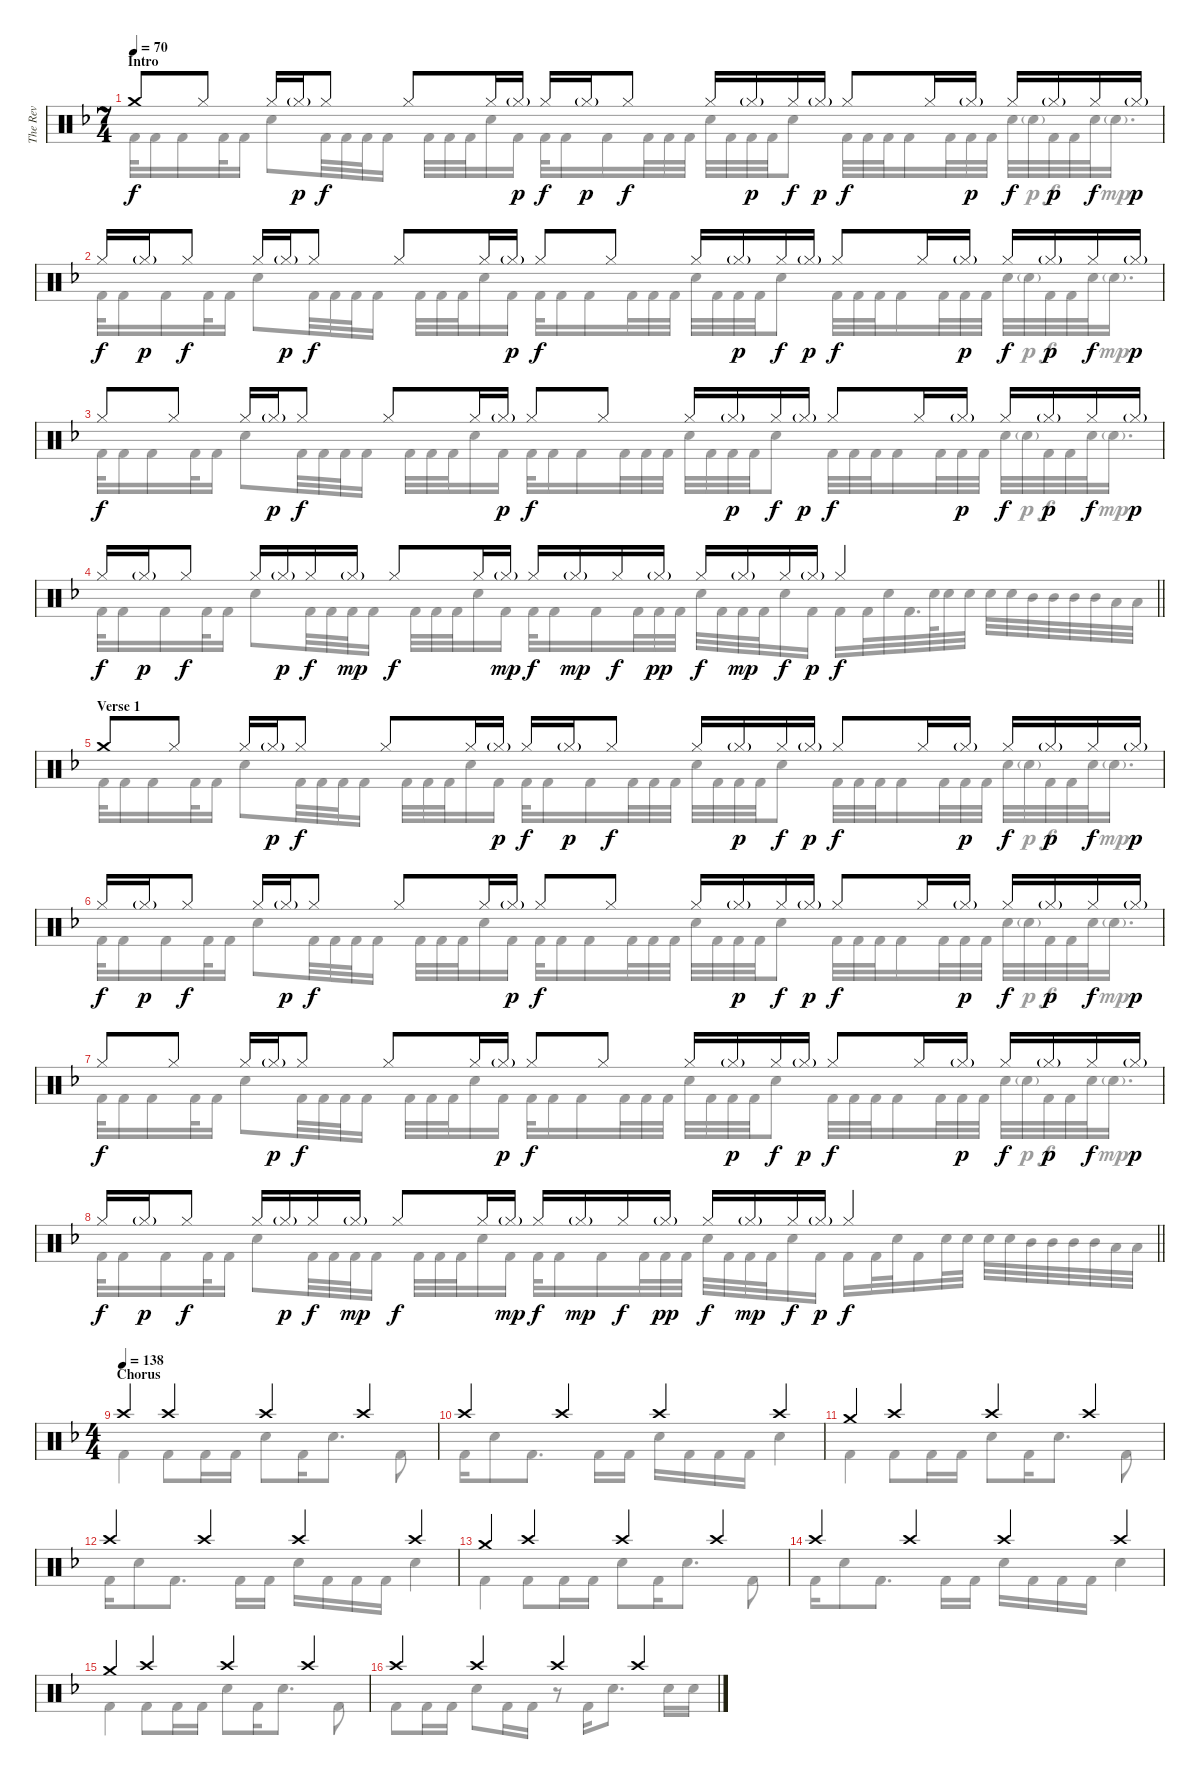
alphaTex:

\track ("The Rev" "The Rev") {instrument percussion}
\staff {score}
\articulation defaults
\voice
\ts (7 4)
\section ("" "Intro")
\tempo 70
\clef neutral
\ks dminor "Crash medium (hit)".8{dy f} "Hi-Hat (closed)".8 "Hi-Hat (closed)".16 "Hi-Hat (closed)"{g}.16{dy p} "Hi-Hat (closed)".8{dy f} "Hi-Hat (closed)".8 "Hi-Hat (closed)".16 "Hi-Hat (closed)"{g}.16{dy p} "Hi-Hat (closed)".16{dy f} "Hi-Hat (closed)"{g}.16{dy p} "Hi-Hat (closed)".8{dy f} "Hi-Hat (closed)".16 "Hi-Hat (closed)"{g}.16{dy p} "Hi-Hat (closed)".16{dy f} "Hi-Hat (closed)"{g}.16{dy p} "Hi-Hat (closed)".8{dy f} "Hi-Hat (closed)".16 "Hi-Hat (closed)"{g}.16{dy p} "Hi-Hat (closed)".16{dy f} "Hi-Hat (closed)"{g}.16{dy p} "Hi-Hat (closed)".16{dy f} "Hi-Hat (closed)"{g}.16{dy p}
|
"Hi-Hat (closed)".16{dy f} "Hi-Hat (closed)"{g}.16{dy p} "Hi-Hat (closed)".8{dy f} "Hi-Hat (closed)".16 "Hi-Hat (closed)"{g}.16{dy p} "Hi-Hat (closed)".8{dy f} "Hi-Hat (closed)".8 "Hi-Hat (closed)".16 "Hi-Hat (closed)"{g}.16{dy p} "Hi-Hat (closed)".8{dy f} "Hi-Hat (closed)".8 "Hi-Hat (closed)".16 "Hi-Hat (closed)"{g}.16{dy p} "Hi-Hat (closed)".16{dy f} "Hi-Hat (closed)"{g}.16{dy p} "Hi-Hat (closed)".8{dy f} "Hi-Hat (closed)".16 "Hi-Hat (closed)"{g}.16{dy p} "Hi-Hat (closed)".16{dy f} "Hi-Hat (closed)"{g}.16{dy p} "Hi-Hat (closed)".16{dy f} "Hi-Hat (closed)"{g}.16{dy p} |
"Hi-Hat (closed)".8{dy f} "Hi-Hat (closed)".8 "Hi-Hat (closed)".16 "Hi-Hat (closed)"{g}.16{dy p} "Hi-Hat (closed)".8{dy f} "Hi-Hat (closed)".8 "Hi-Hat (closed)".16 "Hi-Hat (closed)"{g}.16{dy p} "Hi-Hat (closed)".8{dy f} "Hi-Hat (closed)".8 "Hi-Hat (closed)".16 "Hi-Hat (closed)"{g}.16{dy p} "Hi-Hat (closed)".16{dy f} "Hi-Hat (closed)"{g}.16{dy p} "Hi-Hat (closed)".8{dy f} "Hi-Hat (closed)".16 "Hi-Hat (closed)"{g}.16{dy p} "Hi-Hat (closed)".16{dy f} "Hi-Hat (closed)"{g}.16{dy p} "Hi-Hat (closed)".16{dy f} "Hi-Hat (closed)"{g}.16{dy p} |
\barLineRight lightlight "Hi-Hat (closed)".16{dy f} "Hi-Hat (closed)"{g}.16{dy p} "Hi-Hat (closed)".8{dy f} "Hi-Hat (closed)".16 "Hi-Hat (closed)"{g}.16{dy p} "Hi-Hat (closed)".16{dy f} "Hi-Hat (closed)"{g}.16{dy mp} "Hi-Hat (closed)".8{dy f} "Hi-Hat (closed)".16 "Hi-Hat (closed)"{g}.16{dy mp} "Hi-Hat (closed)".16{dy f} "Hi-Hat (closed)"{g}.16{dy mp} "Hi-Hat (closed)".16{dy f} "Hi-Hat (closed)"{g}.16{dy pp} "Hi-Hat (closed)".16{dy f} "Hi-Hat (closed)"{g}.16{dy mp} "Hi-Hat (closed)".16{dy f} "Hi-Hat (closed)"{g}.16{dy p} "Hi-Hat (closed)".2{dy f}
|
\section ("" "Verse 1")
"Crash medium (hit)".8 "Hi-Hat (closed)".8 "Hi-Hat (closed)".16 "Hi-Hat (closed)"{g}.16{dy p} "Hi-Hat (closed)".8{dy f} "Hi-Hat (closed)".8 "Hi-Hat (closed)".16 "Hi-Hat (closed)"{g}.16{dy p} "Hi-Hat (closed)".16{dy f} "Hi-Hat (closed)"{g}.16{dy p} "Hi-Hat (closed)".8{dy f} "Hi-Hat (closed)".16 "Hi-Hat (closed)"{g}.16{dy p} "Hi-Hat (closed)".16{dy f} "Hi-Hat (closed)"{g}.16{dy p} "Hi-Hat (closed)".8{dy f} "Hi-Hat (closed)".16 "Hi-Hat (closed)"{g}.16{dy p} "Hi-Hat (closed)".16{dy f} "Hi-Hat (closed)"{g}.16{dy p} "Hi-Hat (closed)".16{dy f} "Hi-Hat (closed)"{g}.16{dy p} |
"Hi-Hat (closed)".16{dy f} "Hi-Hat (closed)"{g}.16{dy p} "Hi-Hat (closed)".8{dy f} "Hi-Hat (closed)".16 "Hi-Hat (closed)"{g}.16{dy p} "Hi-Hat (closed)".8{dy f} "Hi-Hat (closed)".8 "Hi-Hat (closed)".16 "Hi-Hat (closed)"{g}.16{dy p} "Hi-Hat (closed)".8{dy f} "Hi-Hat (closed)".8 "Hi-Hat (closed)".16 "Hi-Hat (closed)"{g}.16{dy p} "Hi-Hat (closed)".16{dy f} "Hi-Hat (closed)"{g}.16{dy p} "Hi-Hat (closed)".8{dy f} "Hi-Hat (closed)".16 "Hi-Hat (closed)"{g}.16{dy p} "Hi-Hat (closed)".16{dy f} "Hi-Hat (closed)"{g}.16{dy p} "Hi-Hat (closed)".16{dy f} "Hi-Hat (closed)"{g}.16{dy p} |
"Hi-Hat (closed)".8{dy f} "Hi-Hat (closed)".8 "Hi-Hat (closed)".16 "Hi-Hat (closed)"{g}.16{dy p} "Hi-Hat (closed)".8{dy f} "Hi-Hat (closed)".8 "Hi-Hat (closed)".16 "Hi-Hat (closed)"{g}.16{dy p} "Hi-Hat (closed)".8{dy f} "Hi-Hat (closed)".8 "Hi-Hat (closed)".16 "Hi-Hat (closed)"{g}.16{dy p} "Hi-Hat (closed)".16{dy f} "Hi-Hat (closed)"{g}.16{dy p} "Hi-Hat (closed)".8{dy f} "Hi-Hat (closed)".16 "Hi-Hat (closed)"{g}.16{dy p} "Hi-Hat (closed)".16{dy f} "Hi-Hat (closed)"{g}.16{dy p} "Hi-Hat (closed)".16{dy f} "Hi-Hat (closed)"{g}.16{dy p} |
\barLineRight lightlight "Hi-Hat (closed)".16{dy f} "Hi-Hat (closed)"{g}.16{dy p} "Hi-Hat (closed)".8{dy f} "Hi-Hat (closed)".16 "Hi-Hat (closed)"{g}.16{dy p} "Hi-Hat (closed)".16{dy f} "Hi-Hat (closed)"{g}.16{dy mp} "Hi-Hat (closed)".8{dy f} "Hi-Hat (closed)".16 "Hi-Hat (closed)"{g}.16{dy mp} "Hi-Hat (closed)".16{dy f} "Hi-Hat (closed)"{g}.16{dy mp} "Hi-Hat (closed)".16{dy f} "Hi-Hat (closed)"{g}.16{dy pp} "Hi-Hat (closed)".16{dy f} "Hi-Hat (closed)"{g}.16{dy mp} "Hi-Hat (closed)".16{dy f} "Hi-Hat (closed)"{g}.16{dy p} "Hi-Hat (closed)".2{dy f}
|
\ts (4 4)
\section ("" "Chorus")
\tempo (138)
"Crash high (hit)".4 "Crash high (hit)".4 "Crash high (hit)".4 "Crash high (hit)".4 |
"Crash high (hit)".4 "Crash high (hit)".4 "Crash high (hit)".4 "Crash high (hit)".4 |
"Crash medium (hit)".4 "Crash high (hit)".4 "Crash high (hit)".4 "Crash high (hit)".4 |
"Crash high (hit)".4 "Crash high (hit)".4 "Crash high (hit)".4 "Crash high (hit)".4 |
"Crash medium (hit)".4 "Crash high (hit)".4 "Crash high (hit)".4 "Crash high (hit)".4 |
"Crash high (hit)".4 "Crash high (hit)".4 "Crash high (hit)".4 "Crash high (hit)".4 |
"Crash medium (hit)".4 "Crash high (hit)".4 "Crash high (hit)".4 "Crash high (hit)".4 |
"Crash high (hit)".4 "Crash high (hit)".4 "Crash high (hit)".4 "Crash high (hit)".4
\voice
\clef neutral
\ottava regular
\simile none
\ks dminor "Kick (hit) 2".32{dy f} "Kick (hit) 2".16 "Kick (hit) 2".16 "Kick (hit) 2".32 "Kick (hit) 2".16 "Electric Snare (hit)".8 "Kick (hit) 2".32 "Kick (hit) 2".32 "Kick (hit) 2".32 "Kick (hit) 2".16 "Kick (hit) 2".32 "Kick (hit) 2".32 "Kick (hit) 2".32 "Electric Snare (hit)".16 "Kick (hit) 2".16 "Kick (hit) 2".32 "Kick (hit) 2".16 "Kick (hit) 2".16 "Kick (hit) 2".32 "Kick (hit) 2".32 "Kick (hit) 2".32 "Electric Snare (hit)".32 "Kick (hit) 2".32 "Kick (hit) 2".32 "Kick (hit) 2".32 "Electric Snare (hit)".8 "Kick (hit) 2".32 "Kick (hit) 2".32 "Kick (hit) 2".32 "Kick (hit) 2".16 "Kick (hit) 2".32 "Kick (hit) 2".32 "Kick (hit) 2".32 "Electric Snare (hit)".32 "Electric Snare (hit)"{g}.32{dy p} "Kick (hit) 2".32{dy f} "Kick (hit) 2".32 "Electric Snare (hit)".32 "Electric Snare (hit)"{g}.16{d dy mp}
|
"Kick (hit) 2".32{dy f} "Kick (hit) 2".16 "Kick (hit) 2".16 "Kick (hit) 2".32 "Kick (hit) 2".16 "Electric Snare (hit)".8 "Kick (hit) 2".32 "Kick (hit) 2".32 "Kick (hit) 2".32 "Kick (hit) 2".16 "Kick (hit) 2".32 "Kick (hit) 2".32 "Kick (hit) 2".32 "Electric Snare (hit)".16 "Kick (hit) 2".16 "Kick (hit) 2".32 "Kick (hit) 2".16 "Kick (hit) 2".16 "Kick (hit) 2".32 "Kick (hit) 2".32 "Kick (hit) 2".32 "Electric Snare (hit)".32 "Kick (hit) 2".32 "Kick (hit) 2".32 "Kick (hit) 2".32 "Electric Snare (hit)".8 "Kick (hit) 2".32 "Kick (hit) 2".32 "Kick (hit) 2".32 "Kick (hit) 2".16 "Kick (hit) 2".32 "Kick (hit) 2".32 "Kick (hit) 2".32 "Electric Snare (hit)".32 "Electric Snare (hit)"{g}.32{dy p} "Kick (hit) 2".32{dy f} "Kick (hit) 2".32 "Electric Snare (hit)".32 "Electric Snare (hit)"{g}.16{d dy mp} |
"Kick (hit) 2".32{dy f} "Kick (hit) 2".16 "Kick (hit) 2".16 "Kick (hit) 2".32 "Kick (hit) 2".16 "Electric Snare (hit)".8 "Kick (hit) 2".32 "Kick (hit) 2".32 "Kick (hit) 2".32 "Kick (hit) 2".16 "Kick (hit) 2".32 "Kick (hit) 2".32 "Kick (hit) 2".32 "Electric Snare (hit)".16 "Kick (hit) 2".16 "Kick (hit) 2".32 "Kick (hit) 2".16 "Kick (hit) 2".16 "Kick (hit) 2".32 "Kick (hit) 2".32 "Kick (hit) 2".32 "Electric Snare (hit)".32 "Kick (hit) 2".32 "Kick (hit) 2".32 "Kick (hit) 2".32 "Electric Snare (hit)".8 "Kick (hit) 2".32 "Kick (hit) 2".32 "Kick (hit) 2".32 "Kick (hit) 2".16 "Kick (hit) 2".32 "Kick (hit) 2".32 "Kick (hit) 2".32 "Electric Snare (hit)".32 "Electric Snare (hit)"{g}.32{dy p} "Kick (hit) 2".32{dy f} "Kick (hit) 2".32 "Electric Snare (hit)".32 "Electric Snare (hit)"{g}.16{d dy mp} |
\barLineRight lightlight "Kick (hit) 2".32{dy f} "Kick (hit) 2".16 "Kick (hit) 2".16 "Kick (hit) 2".32 "Kick (hit) 2".16 "Electric Snare (hit)".8 "Kick (hit) 2".32 "Kick (hit) 2".32 "Kick (hit) 2".32 "Kick (hit) 2".16 "Kick (hit) 2".32 "Kick (hit) 2".32 "Kick (hit) 2".32 "Electric Snare (hit)".16 "Kick (hit) 2".16 "Kick (hit) 2".32 "Kick (hit) 2".16 "Kick (hit) 2".16 "Kick (hit) 2".32 "Kick (hit) 2".32 "Kick (hit) 2".32 "Electric Snare (hit)".32 "Kick (hit) 2".32 "Kick (hit) 2".32 "Kick (hit) 2".32 "Electric Snare (hit)".16 "Kick (hit) 2".16 "Kick (hit) 2".16 "Kick (hit) 2".32 "Electric Snare (hit)".32 "Kick (hit) 2".32{d} "Electric Snare (hit)".64 "Electric Snare (hit)".32 "Electric Snare (hit)".32 "Electric Snare (hit)".32 "Electric Snare (hit)".32 "Mid Tom (hit)".32 "Mid Tom (hit)".32 "Mid Tom (hit)".32 "Mid Tom (hit)".32 "Low Tom (hit)".32 "Low Tom (hit)".32
|
"Kick (hit) 2".32 "Kick (hit) 2".16 "Kick (hit) 2".16 "Kick (hit) 2".32 "Kick (hit) 2".16 "Electric Snare (hit)".8 "Kick (hit) 2".32 "Kick (hit) 2".32 "Kick (hit) 2".32 "Kick (hit) 2".16 "Kick (hit) 2".32 "Kick (hit) 2".32 "Kick (hit) 2".32 "Electric Snare (hit)".16 "Kick (hit) 2".16 "Kick (hit) 2".32 "Kick (hit) 2".16 "Kick (hit) 2".16 "Kick (hit) 2".32 "Kick (hit) 2".32 "Kick (hit) 2".32 "Electric Snare (hit)".32 "Kick (hit) 2".32 "Kick (hit) 2".32 "Kick (hit) 2".32 "Electric Snare (hit)".8 "Kick (hit) 2".32 "Kick (hit) 2".32 "Kick (hit) 2".32 "Kick (hit) 2".16 "Kick (hit) 2".32 "Kick (hit) 2".32 "Kick (hit) 2".32 "Electric Snare (hit)".32 "Electric Snare (hit)"{g}.32{dy p} "Kick (hit) 2".32{dy f} "Kick (hit) 2".32 "Electric Snare (hit)".32 "Electric Snare (hit)"{g}.16{d dy mp} |
"Kick (hit) 2".32{dy f} "Kick (hit) 2".16 "Kick (hit) 2".16 "Kick (hit) 2".32 "Kick (hit) 2".16 "Electric Snare (hit)".8 "Kick (hit) 2".32 "Kick (hit) 2".32 "Kick (hit) 2".32 "Kick (hit) 2".16 "Kick (hit) 2".32 "Kick (hit) 2".32 "Kick (hit) 2".32 "Electric Snare (hit)".16 "Kick (hit) 2".16 "Kick (hit) 2".32 "Kick (hit) 2".16 "Kick (hit) 2".16 "Kick (hit) 2".32 "Kick (hit) 2".32 "Kick (hit) 2".32 "Electric Snare (hit)".32 "Kick (hit) 2".32 "Kick (hit) 2".32 "Kick (hit) 2".32 "Electric Snare (hit)".8 "Kick (hit) 2".32 "Kick (hit) 2".32 "Kick (hit) 2".32 "Kick (hit) 2".16 "Kick (hit) 2".32 "Kick (hit) 2".32 "Kick (hit) 2".32 "Electric Snare (hit)".32 "Electric Snare (hit)"{g}.32{dy p} "Kick (hit) 2".32{dy f} "Kick (hit) 2".32 "Electric Snare (hit)".32 "Electric Snare (hit)"{g}.16{d dy mp} |
"Kick (hit) 2".32{dy f} "Kick (hit) 2".16 "Kick (hit) 2".16 "Kick (hit) 2".32 "Kick (hit) 2".16 "Electric Snare (hit)".8 "Kick (hit) 2".32 "Kick (hit) 2".32 "Kick (hit) 2".32 "Kick (hit) 2".16 "Kick (hit) 2".32 "Kick (hit) 2".32 "Kick (hit) 2".32 "Electric Snare (hit)".16 "Kick (hit) 2".16 "Kick (hit) 2".32 "Kick (hit) 2".16 "Kick (hit) 2".16 "Kick (hit) 2".32 "Kick (hit) 2".32 "Kick (hit) 2".32 "Electric Snare (hit)".32 "Kick (hit) 2".32 "Kick (hit) 2".32 "Kick (hit) 2".32 "Electric Snare (hit)".8 "Kick (hit) 2".32 "Kick (hit) 2".32 "Kick (hit) 2".32 "Kick (hit) 2".16 "Kick (hit) 2".32 "Kick (hit) 2".32 "Kick (hit) 2".32 "Electric Snare (hit)".32 "Electric Snare (hit)"{g}.32{dy p} "Kick (hit) 2".32{dy f} "Kick (hit) 2".32 "Electric Snare (hit)".32 "Electric Snare (hit)"{g}.16{d dy mp} |
\barLineRight lightlight "Kick (hit) 2".32{dy f} "Kick (hit) 2".16 "Kick (hit) 2".16 "Kick (hit) 2".32 "Kick (hit) 2".16 "Electric Snare (hit)".8 "Kick (hit) 2".32 "Kick (hit) 2".32 "Kick (hit) 2".32 "Kick (hit) 2".16 "Kick (hit) 2".32 "Kick (hit) 2".32 "Kick (hit) 2".32 "Electric Snare (hit)".16 "Kick (hit) 2".16 "Kick (hit) 2".32 "Kick (hit) 2".16 "Kick (hit) 2".16 "Kick (hit) 2".32 "Kick (hit) 2".32 "Kick (hit) 2".32 "Electric Snare (hit)".32 "Kick (hit) 2".32 "Kick (hit) 2".32 "Kick (hit) 2".32 "Electric Snare (hit)".16 "Kick (hit) 2".16 "Kick (hit) 2".16 "Kick (hit) 2".32 "Electric Snare (hit)".32 "Kick (hit) 2".16 "Electric Snare (hit)".32 "Electric Snare (hit)".32 "Electric Snare (hit)".32 "Electric Snare (hit)".32 "Mid Tom (hit)".32 "Mid Tom (hit)".32 "Mid Tom (hit)".32 "Mid Tom (hit)".32 "Low Tom (hit)".32 "Low Tom (hit)".32
|
"Kick (hit) 2".4 "Kick (hit) 2".8 "Kick (hit) 2".16 "Kick (hit) 2".16 "Electric Snare (hit)".8 "Kick (hit) 2".16 "Electric Snare (hit)".8{d} "Kick (hit) 2".8 |
"Kick (hit) 2".16 "Electric Snare (hit)".8 "Kick (hit) 2".8{d} "Kick (hit) 2".16 "Kick (hit) 2".16 "Electric Snare (hit)".16 "Kick (hit) 2".16 "Kick (hit) 2".16 "Kick (hit) 2".16 "Electric Snare (hit)".4 |
"Kick (hit) 2".4 "Kick (hit) 2".8 "Kick (hit) 2".16 "Kick (hit) 2".16 "Electric Snare (hit)".8 "Kick (hit) 2".16 "Electric Snare (hit)".8{d} "Kick (hit) 2".8 |
"Kick (hit) 2".16 "Electric Snare (hit)".8 "Kick (hit) 2".8{d} "Kick (hit) 2".16 "Kick (hit) 2".16 "Electric Snare (hit)".16 "Kick (hit) 2".16 "Kick (hit) 2".16 "Kick (hit) 2".16 "Electric Snare (hit)".4 |
"Kick (hit) 2".4 "Kick (hit) 2".8 "Kick (hit) 2".16 "Kick (hit) 2".16 "Electric Snare (hit)".8 "Kick (hit) 2".16 "Electric Snare (hit)".8{d} "Kick (hit) 2".8 |
"Kick (hit) 2".16 "Electric Snare (hit)".8 "Kick (hit) 2".8{d} "Kick (hit) 2".16 "Kick (hit) 2".16 "Electric Snare (hit)".16 "Kick (hit) 2".16 "Kick (hit) 2".16 "Kick (hit) 2".16 "Electric Snare (hit)".4 |
"Kick (hit) 2".4 "Kick (hit) 2".8 "Kick (hit) 2".16 "Kick (hit) 2".16 "Electric Snare (hit)".8 "Kick (hit) 2".16 "Electric Snare (hit)".8{d} "Kick (hit) 2".8 |
"Kick (hit) 2".8 "Kick (hit) 2".16 "Kick (hit) 2".16 "Electric Snare (hit)".8 "Kick (hit) 2".16 "Kick (hit) 2".16 r.8 "Kick (hit) 2".16 "Electric Snare (hit)".8{d} "Electric Snare (hit)".16 "Electric Snare (hit)".16
